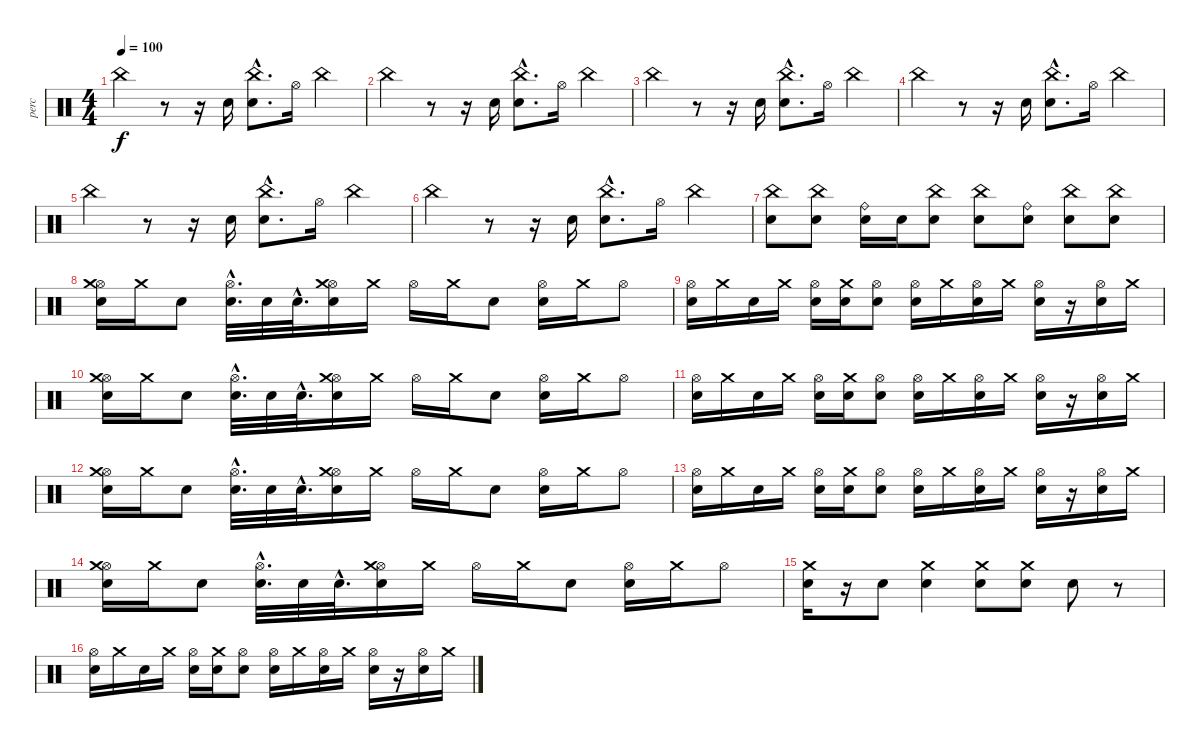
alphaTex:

\track ("perc" "perc") {instrument percussion}
\staff {score}
\articulation defaults
\ts (4 4)
\tempo 100
\clef neutral
\ks c "China (hit)".4{dy f}
r.8 r.16 "Hand Clap (hit)".16 ("Snare (hit) 2"{hac} "China (hit)"{hac}).8{d} "Hi-Hat (open)".16 "China (hit)".4 |
"China (hit)".4 r.8 r.16 "Hand Clap (hit)".16 ("Snare (hit) 2"{hac} "China (hit)"{hac}).8{d} "Hi-Hat (open)".16 "China (hit)".4 |
"China (hit)".4 r.8 r.16 "Hand Clap (hit)".16 ("Snare (hit) 2"{hac} "China (hit)"{hac}).8{d} "Hi-Hat (open)".16 "China (hit)".4 |
"China (hit)".4 r.8 r.16 "Hand Clap (hit)".16 ("Snare (hit) 2"{hac} "China (hit)"{hac}).8{d} "Hi-Hat (open)".16 "China (hit)".4 |
"China (hit)".4 r.8 r.16 "Hand Clap (hit)".16 ("Snare (hit) 2"{hac} "China (hit)"{hac}).8{d} "Hi-Hat (open)".16 "China (hit)".4 |
"China (hit)".4 r.8 r.16 "Hand Clap (hit)".16 ("Snare (hit) 2"{hac} "China (hit)"{hac}).8{d} "Hi-Hat (open)".16 "China (hit)".4 |
("Electric Snare (hit)" "China (hit)").8 ("Electric Snare (hit)" "China (hit)").8 ("Electric Snare (hit)" "Ride (bell)").16 "Electric Snare (hit)".16 ("Snare (hit) 2" "China (hit)").8 ("Snare (hit) 2" "China (hit)").8 ("Snare (hit) 2" "Ride (bell)").8 ("Snare (hit) 2" "China (hit)").8 ("Snare (hit) 2" "China (hit)").8 |
("Snare (hit) 2" "Hi-Hat (open)" "Crash medium (hit)").16 "Crash medium (hit)".16 "Snare (hit) 2".8 ("Snare (hit) 2"{hac} "Hi-Hat (open)"{hac}).32{d} "Snare (hit) 2".32 "Snare (hit) 2"{hac}.32{d} ("Snare (hit) 2" "Hi-Hat (open)" "Crash medium (hit)").16 "Crash medium (hit)".16 "Hi-Hat (open)".16 "Crash medium (hit)".16 "Snare (hit) 2".8 ("Snare (hit) 2" "Hi-Hat (open)").16 "Crash medium (hit)".16 "Hi-Hat (open)".8 |
("Snare (hit) 2" "Hi-Hat (open)").16 "Crash medium (hit)".16 "Snare (hit) 2".16 "Crash medium (hit)".16 ("Snare (hit) 2" "Hi-Hat (open)").16 ("Snare (hit) 2" "Crash medium (hit)").16 ("Snare (hit) 2" "Hi-Hat (open)").8 ("Snare (hit) 2" "Hi-Hat (open)").16 "Crash medium (hit)".16 ("Snare (hit) 2" "Hi-Hat (open)").16 "Crash medium (hit)".16 ("Snare (hit) 2" "Hi-Hat (open)").16 r.16 ("Snare (hit) 2" "Hi-Hat (open)").16 "Crash medium (hit)".16 |
("Snare (hit) 2" "Hi-Hat (open)" "Crash medium (hit)").16 "Crash medium (hit)".16 "Snare (hit) 2".8 ("Snare (hit) 2"{hac} "Hi-Hat (open)"{hac}).32{d} "Snare (hit) 2".32 "Snare (hit) 2"{hac}.32{d} ("Snare (hit) 2" "Hi-Hat (open)" "Crash medium (hit)").16 "Crash medium (hit)".16 "Hi-Hat (open)".16 "Crash medium (hit)".16 "Snare (hit) 2".8 ("Snare (hit) 2" "Hi-Hat (open)").16 "Crash medium (hit)".16 "Hi-Hat (open)".8 |
("Snare (hit) 2" "Hi-Hat (open)").16 "Crash medium (hit)".16 "Snare (hit) 2".16 "Crash medium (hit)".16 ("Snare (hit) 2" "Hi-Hat (open)").16 ("Snare (hit) 2" "Crash medium (hit)").16 ("Snare (hit) 2" "Hi-Hat (open)").8 ("Snare (hit) 2" "Hi-Hat (open)").16 "Crash medium (hit)".16 ("Snare (hit) 2" "Hi-Hat (open)").16 "Crash medium (hit)".16 ("Snare (hit) 2" "Hi-Hat (open)").16 r.16 ("Snare (hit) 2" "Hi-Hat (open)").16 "Crash medium (hit)".16 |
("Snare (hit) 2" "Hi-Hat (open)" "Crash medium (hit)").16 "Crash medium (hit)".16 "Snare (hit) 2".8 ("Snare (hit) 2"{hac} "Hi-Hat (open)"{hac}).32{d} "Snare (hit) 2".32 "Snare (hit) 2"{hac}.32{d} ("Snare (hit) 2" "Hi-Hat (open)" "Crash medium (hit)").16 "Crash medium (hit)".16 "Hi-Hat (open)".16 "Crash medium (hit)".16 "Snare (hit) 2".8 ("Snare (hit) 2" "Hi-Hat (open)").16 "Crash medium (hit)".16 "Hi-Hat (open)".8 |
("Snare (hit) 2" "Hi-Hat (open)").16 "Crash medium (hit)".16 "Snare (hit) 2".16 "Crash medium (hit)".16 ("Snare (hit) 2" "Hi-Hat (open)").16 ("Snare (hit) 2" "Crash medium (hit)").16 ("Snare (hit) 2" "Hi-Hat (open)").8 ("Snare (hit) 2" "Hi-Hat (open)").16 "Crash medium (hit)".16 ("Snare (hit) 2" "Hi-Hat (open)").16 "Crash medium (hit)".16 ("Snare (hit) 2" "Hi-Hat (open)").16 r.16 ("Snare (hit) 2" "Hi-Hat (open)").16 "Crash medium (hit)".16 |
("Snare (hit) 2" "Hi-Hat (open)" "Crash medium (hit)").16 "Crash medium (hit)".16 "Snare (hit) 2".8 ("Snare (hit) 2"{hac} "Hi-Hat (open)"{hac}).32{d} "Snare (hit) 2".32 "Snare (hit) 2"{hac}.32{d} ("Snare (hit) 2" "Hi-Hat (open)" "Crash medium (hit)").16 "Crash medium (hit)".16 "Hi-Hat (open)".16 "Crash medium (hit)".16 "Snare (hit) 2".8 ("Snare (hit) 2" "Hi-Hat (open)").16 "Crash medium (hit)".16 "Hi-Hat (open)".8 |
("Snare (hit) 2" "Crash medium (hit)").16 r.16 "Snare (hit) 2".8 ("Snare (hit) 2" "Crash medium (hit)").4 ("Snare (hit) 2" "Crash medium (hit)").8 ("Snare (hit) 2" "Crash medium (hit)").8 "Snare (hit) 2".8 r.8 |
("Snare (hit) 2" "Hi-Hat (open)").16 "Crash medium (hit)".16 "Snare (hit) 2".16 "Crash medium (hit)".16 ("Snare (hit) 2" "Hi-Hat (open)").16 ("Snare (hit) 2" "Crash medium (hit)").16 ("Snare (hit) 2" "Hi-Hat (open)").8 ("Snare (hit) 2" "Hi-Hat (open)").16 "Crash medium (hit)".16 ("Snare (hit) 2" "Hi-Hat (open)").16 "Crash medium (hit)".16 ("Snare (hit) 2" "Hi-Hat (open)").16 r.16 ("Snare (hit) 2" "Hi-Hat (open)").16 "Crash medium (hit)".16
